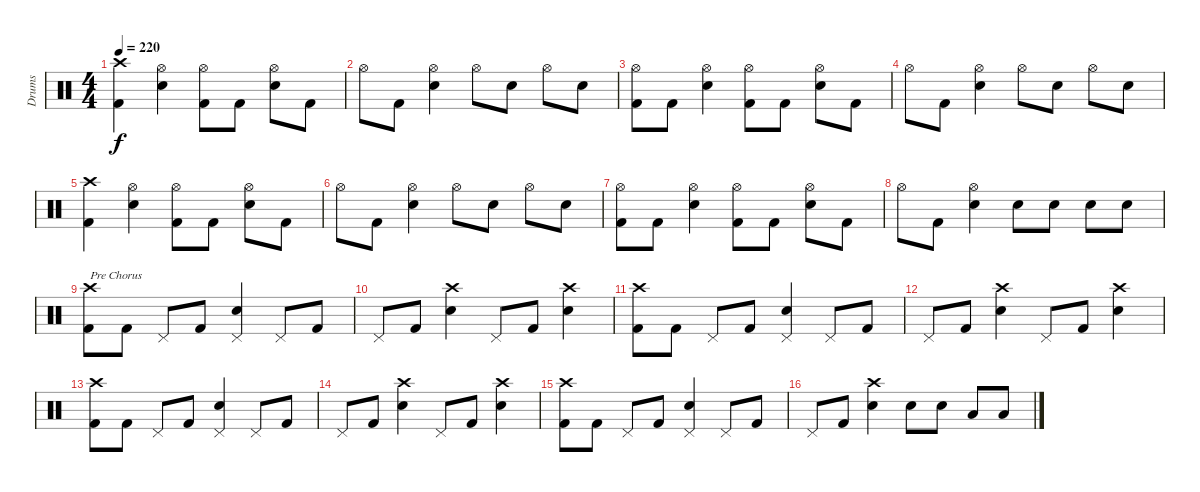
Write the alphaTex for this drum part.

\track ("Drums" "Drums") {instrument percussion}
\staff {score}
\articulation defaults
\ts (4 4)
\tempo 220
\clef neutral
\ks c
("Crash high (hit)" "Kick (hit) 2").4{dy f} ("Hi-Hat (open)" "Snare (hit) 2").4 ("Hi-Hat (open)" "Kick (hit) 2").8 "Kick (hit) 2".8 ("Hi-Hat (open)" "Snare (hit) 2").8 "Kick (hit) 2".8 |
"Hi-Hat (open)".8 "Kick (hit) 2".8 ("Hi-Hat (open)" "Snare (hit) 2").4 "Hi-Hat (open)".8 "Snare (hit) 2".8 "Hi-Hat (open)".8 "Snare (hit) 2".8 |
("Hi-Hat (open)" "Kick (hit) 2").8 "Kick (hit) 2".8 ("Hi-Hat (open)" "Snare (hit) 2").4 ("Hi-Hat (open)" "Kick (hit) 2").8 "Kick (hit) 2".8 ("Hi-Hat (open)" "Snare (hit) 2").8 "Kick (hit) 2".8 |
"Hi-Hat (open)".8 "Kick (hit) 2".8 ("Hi-Hat (open)" "Snare (hit) 2").4 "Hi-Hat (open)".8 "Snare (hit) 2".8 "Hi-Hat (open)".8 "Snare (hit) 2".8 |
("Crash high (hit)" "Kick (hit) 2").4 ("Hi-Hat (open)" "Snare (hit) 2").4 ("Hi-Hat (open)" "Kick (hit) 2").8 "Kick (hit) 2".8 ("Hi-Hat (open)" "Snare (hit) 2").8 "Kick (hit) 2".8 |
"Hi-Hat (open)".8 "Kick (hit) 2".8 ("Hi-Hat (open)" "Snare (hit) 2").4 "Hi-Hat (open)".8 "Snare (hit) 2".8 "Hi-Hat (open)".8 "Snare (hit) 2".8 |
("Hi-Hat (open)" "Kick (hit) 2").8 "Kick (hit) 2".8 ("Hi-Hat (open)" "Snare (hit) 2").4 ("Hi-Hat (open)" "Kick (hit) 2").8 "Kick (hit) 2".8 ("Hi-Hat (open)" "Snare (hit) 2").8 "Kick (hit) 2".8 |
"Hi-Hat (open)".8 "Kick (hit) 2".8 ("Hi-Hat (open)" "Snare (hit) 2").4 "Snare (hit) 2".8 "Snare (hit) 2".8 "Snare (hit) 2".8 "Snare (hit) 2".8 |
("Crash high (hit)" "Kick (hit) 2").8{txt "Pre Chorus"} "Kick (hit) 2".8 "Pedal Hi-Hat (hit)".8 "Kick (hit) 2".8 ("Pedal Hi-Hat (hit)" "Snare (hit) 2").4 "Pedal Hi-Hat (hit)".8 "Kick (hit) 2".8 |
"Pedal Hi-Hat (hit)".8 "Kick (hit) 2".8 ("Crash high (hit)" "Snare (hit) 2").4 "Pedal Hi-Hat (hit)".8 "Kick (hit) 2".8 ("Crash high (hit)" "Snare (hit) 2").4 |
("Crash high (hit)" "Kick (hit) 2").8 "Kick (hit) 2".8 "Pedal Hi-Hat (hit)".8 "Kick (hit) 2".8 ("Pedal Hi-Hat (hit)" "Snare (hit) 2").4 "Pedal Hi-Hat (hit)".8 "Kick (hit) 2".8 |
"Pedal Hi-Hat (hit)".8 "Kick (hit) 2".8 ("Crash high (hit)" "Snare (hit) 2").4 "Pedal Hi-Hat (hit)".8 "Kick (hit) 2".8 ("Crash high (hit)" "Snare (hit) 2").4 |
("Crash high (hit)" "Kick (hit) 2").8 "Kick (hit) 2".8 "Pedal Hi-Hat (hit)".8 "Kick (hit) 2".8 ("Pedal Hi-Hat (hit)" "Snare (hit) 2").4 "Pedal Hi-Hat (hit)".8 "Kick (hit) 2".8 |
"Pedal Hi-Hat (hit)".8 "Kick (hit) 2".8 ("Crash high (hit)" "Snare (hit) 2").4 "Pedal Hi-Hat (hit)".8 "Kick (hit) 2".8 ("Crash high (hit)" "Snare (hit) 2").4 |
("Crash high (hit)" "Kick (hit) 2").8 "Kick (hit) 2".8 "Pedal Hi-Hat (hit)".8 "Kick (hit) 2".8 ("Pedal Hi-Hat (hit)" "Snare (hit) 2").4 "Pedal Hi-Hat (hit)".8 "Kick (hit) 2".8 |
"Pedal Hi-Hat (hit)".8 "Kick (hit) 2".8 ("Crash high (hit)" "Snare (hit) 2").4 "Snare (hit) 2".8 "Snare (hit) 2".8 "Low Tom (hit)".8 "Low Tom (hit)".8
